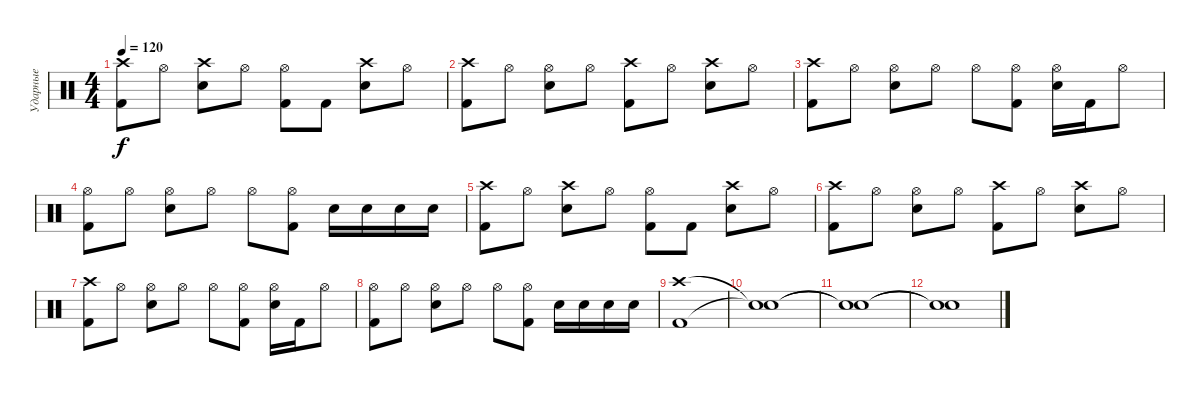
\track ("Ударные" "Ударные") {instrument percussion}
\staff {score}
\articulation defaults
\ts (4 4)
\tempo 120
\clef neutral
\ks c
("Crash high (hit)" "Kick (hit) 2").8{dy f} "Hi-Hat (open)".8 ("Snare (hit) 2" "Crash high (hit)").8 "Hi-Hat (open)".8 ("Kick (hit) 2" "Hi-Hat (open)").8 "Kick (hit) 2".8 ("Snare (hit) 2" "Crash high (hit)").8 "Hi-Hat (open)".8 |
("Crash high (hit)" "Kick (hit) 2").8 "Hi-Hat (open)".8 ("Snare (hit) 2" "Hi-Hat (open)").8 "Hi-Hat (open)".8 ("Kick (hit) 2" "Crash high (hit)").8 "Hi-Hat (open)".8 ("Snare (hit) 2" "Crash high (hit)").8 "Hi-Hat (open)".8 |
("Crash high (hit)" "Kick (hit) 2").8 "Hi-Hat (open)".8 ("Snare (hit) 2" "Hi-Hat (open)").8 "Hi-Hat (open)".8 "Hi-Hat (open)".8 ("Kick (hit) 2" "Hi-Hat (open)").8 ("Snare (hit) 2" "Hi-Hat (open)").16 "Kick (hit) 2".16 "Hi-Hat (open)".8 |
("Hi-Hat (open)" "Kick (hit) 2").8 "Hi-Hat (open)".8 ("Snare (hit) 2" "Hi-Hat (open)").8 "Hi-Hat (open)".8 "Hi-Hat (open)".8 ("Kick (hit) 2" "Hi-Hat (open)").8 "Electric Snare (hit)".16 "Electric Snare (hit)".16 "Electric Snare (hit)".16 "Electric Snare (hit)".16 |
("Crash high (hit)" "Kick (hit) 2").8 "Hi-Hat (open)".8 ("Snare (hit) 2" "Crash high (hit)").8 "Hi-Hat (open)".8 ("Kick (hit) 2" "Hi-Hat (open)").8 "Kick (hit) 2".8 ("Snare (hit) 2" "Crash high (hit)").8 "Hi-Hat (open)".8 |
("Crash high (hit)" "Kick (hit) 2").8 "Hi-Hat (open)".8 ("Snare (hit) 2" "Hi-Hat (open)").8 "Hi-Hat (open)".8 ("Kick (hit) 2" "Crash high (hit)").8 "Hi-Hat (open)".8 ("Snare (hit) 2" "Crash high (hit)").8 "Hi-Hat (open)".8 |
("Crash high (hit)" "Kick (hit) 2").8 "Hi-Hat (open)".8 ("Snare (hit) 2" "Hi-Hat (open)").8 "Hi-Hat (open)".8 "Hi-Hat (open)".8 ("Kick (hit) 2" "Hi-Hat (open)").8 ("Snare (hit) 2" "Hi-Hat (open)").16 "Kick (hit) 2".16 "Hi-Hat (open)".8 |
("Hi-Hat (open)" "Kick (hit) 2").8 "Hi-Hat (open)".8 ("Snare (hit) 2" "Hi-Hat (open)").8 "Hi-Hat (open)".8 "Hi-Hat (open)".8 ("Kick (hit) 2" "Hi-Hat (open)").8 "Electric Snare (hit)".16 "Electric Snare (hit)".16 "Electric Snare (hit)".16 "Electric Snare (hit)".16 |
("Crash high (hit)" "Kick (hit) 2").1 |
("Snare (hit)"{t} "Snare (hit)"{t}).1 |
("Snare (hit)"{t} "Snare (hit)"{t}).1 |
("Snare (hit)"{t} "Snare (hit)"{t}).1
